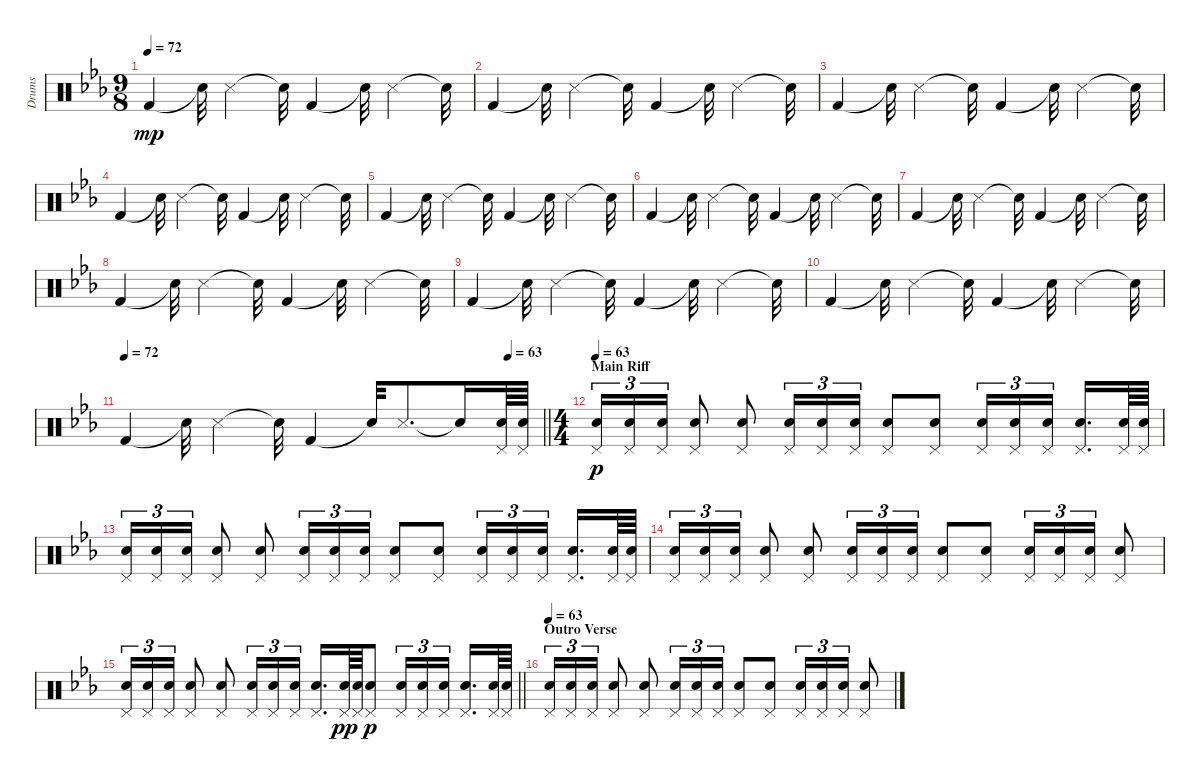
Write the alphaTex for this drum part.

\track ("Drums" "Drums") {instrument percussion}
\staff {score}
\articulation defaults
\ts (9 8)
\tempo 72
\clef neutral
\ks eb "Kick (hit) 2".4{dy mp} "Snare (hit)"{t}.32 "Snare (side stick) 3".4 "Snare (hit)"{t}.32 "Kick (hit) 2".4 "Snare (hit)"{t}.32 "Snare (side stick) 3".4 "Snare (hit)"{t}.32
|
"Kick (hit) 2".4 "Snare (hit)"{t}.32 "Snare (side stick) 3".4 "Snare (hit)"{t}.32 "Kick (hit) 2".4 "Snare (hit)"{t}.32 "Snare (side stick) 3".4 "Snare (hit)"{t}.32 |
"Kick (hit) 2".4 "Snare (hit)"{t}.32 "Snare (side stick) 3".4 "Snare (hit)"{t}.32 "Kick (hit) 2".4 "Snare (hit)"{t}.32 "Snare (side stick) 3".4 "Snare (hit)"{t}.32 |
"Kick (hit) 2".4 "Snare (hit)"{t}.32 "Snare (side stick) 3".4 "Snare (hit)"{t}.32 "Kick (hit) 2".4 "Snare (hit)"{t}.32 "Snare (side stick) 3".4 "Snare (hit)"{t}.32 |
"Kick (hit) 2".4 "Snare (hit)"{t}.32 "Snare (side stick) 3".4 "Snare (hit)"{t}.32 "Kick (hit) 2".4 "Snare (hit)"{t}.32 "Snare (side stick) 3".4 "Snare (hit)"{t}.32 |
"Kick (hit) 2".4 "Snare (hit)"{t}.32 "Snare (side stick) 3".4 "Snare (hit)"{t}.32 "Kick (hit) 2".4 "Snare (hit)"{t}.32 "Snare (side stick) 3".4 "Snare (hit)"{t}.32 |
"Kick (hit) 2".4 "Snare (hit)"{t}.32 "Snare (side stick) 3".4 "Snare (hit)"{t}.32 "Kick (hit) 2".4 "Snare (hit)"{t}.32 "Snare (side stick) 3".4 "Snare (hit)"{t}.32 |
"Kick (hit) 2".4 "Snare (hit)"{t}.32 "Snare (side stick) 3".4 "Snare (hit)"{t}.32 "Kick (hit) 2".4 "Snare (hit)"{t}.32 "Snare (side stick) 3".4 "Snare (hit)"{t}.32 |
"Kick (hit) 2".4 "Snare (hit)"{t}.32 "Snare (side stick) 3".4 "Snare (hit)"{t}.32 "Kick (hit) 2".4 "Snare (hit)"{t}.32 "Snare (side stick) 3".4 "Snare (hit)"{t}.32 |
"Kick (hit) 2".4 "Snare (hit)"{t}.32 "Snare (side stick) 3".4 "Snare (hit)"{t}.32 "Kick (hit) 2".4 "Snare (hit)"{t}.32 "Snare (side stick) 3".4 "Snare (hit)"{t}.32 |
\tempo 72
\tempo (63 0.9166666666666666)
\barLineRight lightlight "Kick (hit) 2".4{volume 13} "Snare (hit)"{t}.32 "Snare (side stick) 3".4 "Snare (hit)"{t}.32 "Kick (hit) 2".4 "Snare (hit)"{t}.32 "Snare (side stick) 3".8{d} "Snare (hit)"{t}.16
("Pedal Hi-Hat (hit)" "Electric Snare (hit)").64 ("Pedal Hi-Hat (hit)" "Electric Snare (hit)").64 |
\ts (4 4)
\section ("" "Main Riff")
\tempo 63
("Pedal Hi-Hat (hit)" "Electric Snare (hit)").16{tu (3 2) dy p} ("Pedal Hi-Hat (hit)" "Electric Snare (hit)").16{tu (3 2)} ("Pedal Hi-Hat (hit)" "Electric Snare (hit)").16{tu (3 2)} ("Pedal Hi-Hat (hit)" "Electric Snare (hit)").8 ("Pedal Hi-Hat (hit)" "Electric Snare (hit)").8 ("Pedal Hi-Hat (hit)" "Electric Snare (hit)").16{tu (3 2)} ("Pedal Hi-Hat (hit)" "Electric Snare (hit)").16{tu (3 2)} ("Pedal Hi-Hat (hit)" "Electric Snare (hit)").16{tu (3 2)} ("Pedal Hi-Hat (hit)" "Electric Snare (hit)").8 ("Pedal Hi-Hat (hit)" "Electric Snare (hit)").8 ("Pedal Hi-Hat (hit)" "Electric Snare (hit)").16{tu (3 2)} ("Pedal Hi-Hat (hit)" "Electric Snare (hit)").16{tu (3 2)} ("Pedal Hi-Hat (hit)" "Electric Snare (hit)").16{tu (3 2) beam splitsecondary} ("Pedal Hi-Hat (hit)" "Electric Snare (hit)").16{d} ("Pedal Hi-Hat (hit)" "Electric Snare (hit)").64 ("Pedal Hi-Hat (hit)" "Electric Snare (hit)").64 |
("Pedal Hi-Hat (hit)" "Electric Snare (hit)").16{tu (3 2)} ("Pedal Hi-Hat (hit)" "Electric Snare (hit)").16{tu (3 2)} ("Pedal Hi-Hat (hit)" "Electric Snare (hit)").16{tu (3 2)} ("Pedal Hi-Hat (hit)" "Electric Snare (hit)").8 ("Pedal Hi-Hat (hit)" "Electric Snare (hit)").8 ("Pedal Hi-Hat (hit)" "Electric Snare (hit)").16{tu (3 2)} ("Pedal Hi-Hat (hit)" "Electric Snare (hit)").16{tu (3 2)} ("Pedal Hi-Hat (hit)" "Electric Snare (hit)").16{tu (3 2)} ("Pedal Hi-Hat (hit)" "Electric Snare (hit)").8 ("Pedal Hi-Hat (hit)" "Electric Snare (hit)").8 ("Pedal Hi-Hat (hit)" "Electric Snare (hit)").16{tu (3 2)} ("Pedal Hi-Hat (hit)" "Electric Snare (hit)").16{tu (3 2)} ("Pedal Hi-Hat (hit)" "Electric Snare (hit)").16{tu (3 2) beam splitsecondary} ("Pedal Hi-Hat (hit)" "Electric Snare (hit)").16{d} ("Pedal Hi-Hat (hit)" "Electric Snare (hit)").64 ("Pedal Hi-Hat (hit)" "Electric Snare (hit)").64 |
("Pedal Hi-Hat (hit)" "Electric Snare (hit)").16{tu (3 2)} ("Pedal Hi-Hat (hit)" "Electric Snare (hit)").16{tu (3 2)} ("Pedal Hi-Hat (hit)" "Electric Snare (hit)").16{tu (3 2)} ("Pedal Hi-Hat (hit)" "Electric Snare (hit)").8 ("Pedal Hi-Hat (hit)" "Electric Snare (hit)").8 ("Pedal Hi-Hat (hit)" "Electric Snare (hit)").16{tu (3 2)} ("Pedal Hi-Hat (hit)" "Electric Snare (hit)").16{tu (3 2)} ("Pedal Hi-Hat (hit)" "Electric Snare (hit)").16{tu (3 2)} ("Pedal Hi-Hat (hit)" "Electric Snare (hit)").8 ("Pedal Hi-Hat (hit)" "Electric Snare (hit)").8 ("Pedal Hi-Hat (hit)" "Electric Snare (hit)").16{tu (3 2)} ("Pedal Hi-Hat (hit)" "Electric Snare (hit)").16{tu (3 2)} ("Pedal Hi-Hat (hit)" "Electric Snare (hit)").16{tu (3 2)} ("Pedal Hi-Hat (hit)" "Electric Snare (hit)").8 |
\barLineRight lightlight
("Pedal Hi-Hat (hit)" "Electric Snare (hit)").16{tu (3 2)} ("Pedal Hi-Hat (hit)" "Electric Snare (hit)").16{tu (3 2)} ("Pedal Hi-Hat (hit)" "Electric Snare (hit)").16{tu (3 2)} ("Pedal Hi-Hat (hit)" "Electric Snare (hit)").8 ("Pedal Hi-Hat (hit)" "Electric Snare (hit)").8 ("Pedal Hi-Hat (hit)" "Electric Snare (hit)").16{tu (3 2)} ("Pedal Hi-Hat (hit)" "Electric Snare (hit)").16{tu (3 2)} ("Pedal Hi-Hat (hit)" "Electric Snare (hit)").16{tu (3 2)} ("Pedal Hi-Hat (hit)" "Electric Snare (hit)").16{d} ("Pedal Hi-Hat (hit)" "Electric Snare (hit)").64{dy pp} ("Pedal Hi-Hat (hit)" "Electric Snare (hit)").64 ("Pedal Hi-Hat (hit)" "Electric Snare (hit)").8{dy p} ("Pedal Hi-Hat (hit)" "Electric Snare (hit)").16{tu (3 2)} ("Pedal Hi-Hat (hit)" "Electric Snare (hit)").16{tu (3 2)} ("Pedal Hi-Hat (hit)" "Electric Snare (hit)").16{tu (3 2) beam splitsecondary} ("Pedal Hi-Hat (hit)" "Electric Snare (hit)").16{d} ("Pedal Hi-Hat (hit)" "Electric Snare (hit)").64 ("Pedal Hi-Hat (hit)" "Electric Snare (hit)").64 |
\section ("" "Outro Verse")
\tempo 63
("Pedal Hi-Hat (hit)" "Electric Snare (hit)").16{tu (3 2)} ("Pedal Hi-Hat (hit)" "Electric Snare (hit)").16{tu (3 2)} ("Pedal Hi-Hat (hit)" "Electric Snare (hit)").16{tu (3 2)} ("Pedal Hi-Hat (hit)" "Electric Snare (hit)").8 ("Pedal Hi-Hat (hit)" "Electric Snare (hit)").8 ("Pedal Hi-Hat (hit)" "Electric Snare (hit)").16{tu (3 2)} ("Pedal Hi-Hat (hit)" "Electric Snare (hit)").16{tu (3 2)} ("Pedal Hi-Hat (hit)" "Electric Snare (hit)").16{tu (3 2)} ("Pedal Hi-Hat (hit)" "Electric Snare (hit)").8 ("Pedal Hi-Hat (hit)" "Electric Snare (hit)").8 ("Pedal Hi-Hat (hit)" "Electric Snare (hit)").16{tu (3 2)} ("Pedal Hi-Hat (hit)" "Electric Snare (hit)").16{tu (3 2)} ("Pedal Hi-Hat (hit)" "Electric Snare (hit)").16{tu (3 2)} ("Pedal Hi-Hat (hit)" "Electric Snare (hit)").8
